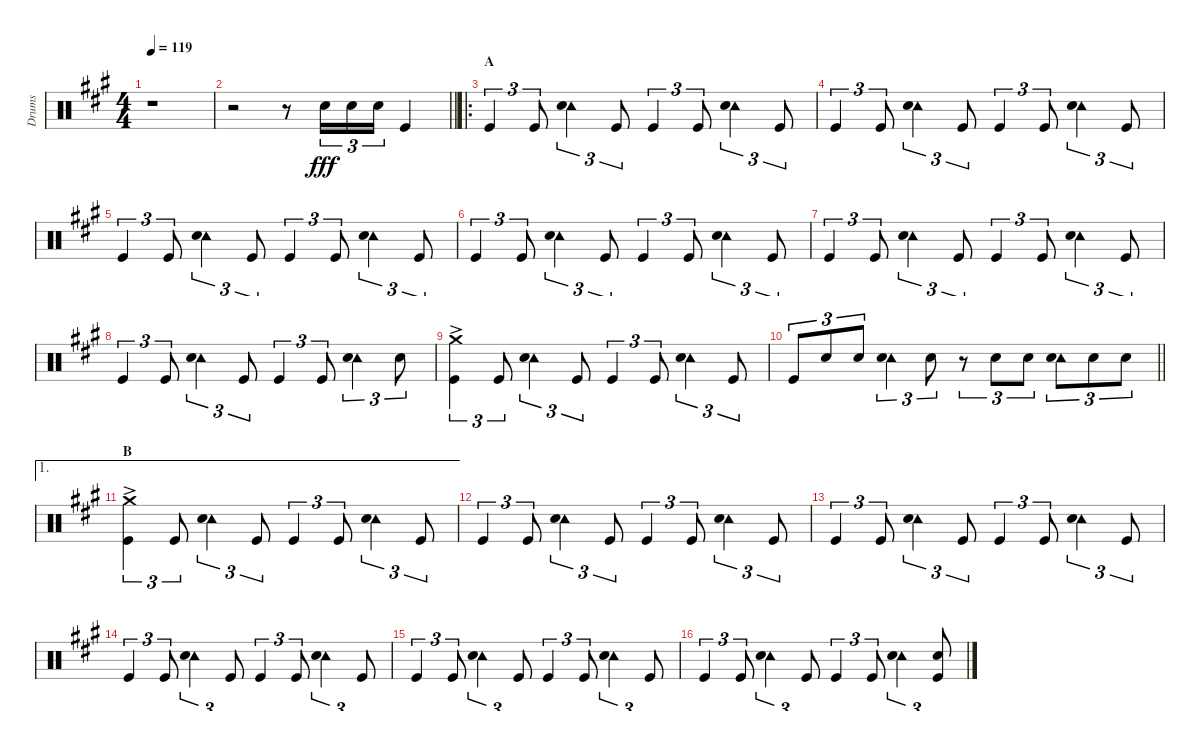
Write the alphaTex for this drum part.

\track ("Drums" "Drums") {instrument percussion}
\staff {score}
\articulation defaults
\ts (4 4)
\tempo 119
\clef neutral
\ks a
r.1{dy fff} |
\barLineRight lightlight
r.2 r.8 "Snare (hit) 2".16{tu (3 2)} "Snare (hit) 2".16{tu (3 2)} "Snare (hit) 2".16{tu (3 2)} "Kick (hit)".4 |
\ro
\section ("" "A")
"Kick (hit)".4{tu (3 2)} "Kick (hit)".8{tu (3 2)} ("Tambourine (hit)" "Snare (hit) 2").4{tu (3 2)} "Kick (hit)".8{tu (3 2)} "Kick (hit)".4{tu (3 2)} "Kick (hit)".8{tu (3 2)} ("Tambourine (hit)" "Snare (hit) 2").4{tu (3 2)} "Kick (hit)".8{tu (3 2)} |
"Kick (hit)".4{tu (3 2)} "Kick (hit)".8{tu (3 2)} ("Tambourine (hit)" "Snare (hit) 2").4{tu (3 2)} "Kick (hit)".8{tu (3 2)} "Kick (hit)".4{tu (3 2)} "Kick (hit)".8{tu (3 2)} ("Tambourine (hit)" "Snare (hit) 2").4{tu (3 2)} "Kick (hit)".8{tu (3 2)} |
"Kick (hit)".4{tu (3 2)} "Kick (hit)".8{tu (3 2)} ("Tambourine (hit)" "Snare (hit) 2").4{tu (3 2)} "Kick (hit)".8{tu (3 2)} "Kick (hit)".4{tu (3 2)} "Kick (hit)".8{tu (3 2)} ("Tambourine (hit)" "Snare (hit) 2").4{tu (3 2)} "Kick (hit)".8{tu (3 2)} |
"Kick (hit)".4{tu (3 2)} "Kick (hit)".8{tu (3 2)} ("Tambourine (hit)" "Snare (hit) 2").4{tu (3 2)} "Kick (hit)".8{tu (3 2)} "Kick (hit)".4{tu (3 2)} "Kick (hit)".8{tu (3 2)} ("Tambourine (hit)" "Snare (hit) 2").4{tu (3 2)} "Kick (hit)".8{tu (3 2)} |
"Kick (hit)".4{tu (3 2)} "Kick (hit)".8{tu (3 2)} ("Tambourine (hit)" "Snare (hit) 2").4{tu (3 2)} "Kick (hit)".8{tu (3 2)} "Kick (hit)".4{tu (3 2)} "Kick (hit)".8{tu (3 2)} ("Tambourine (hit)" "Snare (hit) 2").4{tu (3 2)} "Kick (hit)".8{tu (3 2)} |
"Kick (hit)".4{tu (3 2)} "Kick (hit)".8{tu (3 2)} ("Tambourine (hit)" "Snare (hit) 2").4{tu (3 2)} "Kick (hit)".8{tu (3 2)} "Kick (hit)".4{tu (3 2)} "Kick (hit)".8{tu (3 2)} ("Tambourine (hit)" "Snare (hit) 2").4{tu (3 2)} "Snare (hit) 2".8{tu (3 2)} |
("Crash medium (hit)"{ac} "Kick (hit)").4{tu (3 2)} "Kick (hit)".8{tu (3 2)} ("Tambourine (hit)" "Snare (hit) 2").4{tu (3 2)} "Kick (hit)".8{tu (3 2)} "Kick (hit)".4{tu (3 2)} "Kick (hit)".8{tu (3 2)} ("Tambourine (hit)" "Snare (hit) 2").4{tu (3 2)} "Kick (hit)".8{tu (3 2)} |
\barLineRight lightlight "Kick (hit)".8{tu (3 2)} "Snare (hit) 2".8{tu (3 2)} "Snare (hit) 2".8{tu (3 2)}
("Tambourine (hit)" "Snare (hit) 2").4{tu (3 2)} "Snare (hit) 2".8{tu (3 2)} r.8{tu (3 2)} "Snare (hit) 2".8{tu (3 2)} "Snare (hit) 2".8{tu (3 2)} ("Tambourine (hit)" "Snare (hit) 2").8{tu (3 2)} "Snare (hit) 2".8{tu (3 2)} "Snare (hit) 2".8{tu (3 2)} |
\ae 1
\section ("" "B")
("Crash medium (hit)"{ac} "Kick (hit)").4{tu (3 2)} "Kick (hit)".8{tu (3 2)} ("Tambourine (hit)" "Snare (hit) 2").4{tu (3 2)} "Kick (hit)".8{tu (3 2)} "Kick (hit)".4{tu (3 2)} "Kick (hit)".8{tu (3 2)} ("Tambourine (hit)" "Snare (hit) 2").4{tu (3 2)} "Kick (hit)".8{tu (3 2)} |
"Kick (hit)".4{tu (3 2)} "Kick (hit)".8{tu (3 2)} ("Tambourine (hit)" "Snare (hit) 2").4{tu (3 2)} "Kick (hit)".8{tu (3 2)} "Kick (hit)".4{tu (3 2)} "Kick (hit)".8{tu (3 2)} ("Tambourine (hit)" "Snare (hit) 2").4{tu (3 2)} "Kick (hit)".8{tu (3 2)} |
"Kick (hit)".4{tu (3 2)} "Kick (hit)".8{tu (3 2)} ("Tambourine (hit)" "Snare (hit) 2").4{tu (3 2)} "Kick (hit)".8{tu (3 2)} "Kick (hit)".4{tu (3 2)} "Kick (hit)".8{tu (3 2)} ("Tambourine (hit)" "Snare (hit) 2").4{tu (3 2)} "Kick (hit)".8{tu (3 2)} |
"Kick (hit)".4{tu (3 2)} "Kick (hit)".8{tu (3 2)} ("Tambourine (hit)" "Snare (hit) 2").4{tu (3 2)} "Kick (hit)".8{tu (3 2)} "Kick (hit)".4{tu (3 2)} "Kick (hit)".8{tu (3 2)} ("Tambourine (hit)" "Snare (hit) 2").4{tu (3 2)} "Kick (hit)".8{tu (3 2)} |
"Kick (hit)".4{tu (3 2)} "Kick (hit)".8{tu (3 2)} ("Tambourine (hit)" "Snare (hit) 2").4{tu (3 2)} "Kick (hit)".8{tu (3 2)} "Kick (hit)".4{tu (3 2)} "Kick (hit)".8{tu (3 2)} ("Tambourine (hit)" "Snare (hit) 2").4{tu (3 2)} "Kick (hit)".8{tu (3 2)} |
"Kick (hit)".4{tu (3 2)} "Kick (hit)".8{tu (3 2)} ("Tambourine (hit)" "Snare (hit) 2").4{tu (3 2)} "Kick (hit)".8{tu (3 2)} "Kick (hit)".4{tu (3 2)} "Kick (hit)".8{tu (3 2)} ("Tambourine (hit)" "Snare (hit) 2").4{tu (3 2)} ("Snare (hit) 2" "Kick (hit)").8{tu (3 2)}
